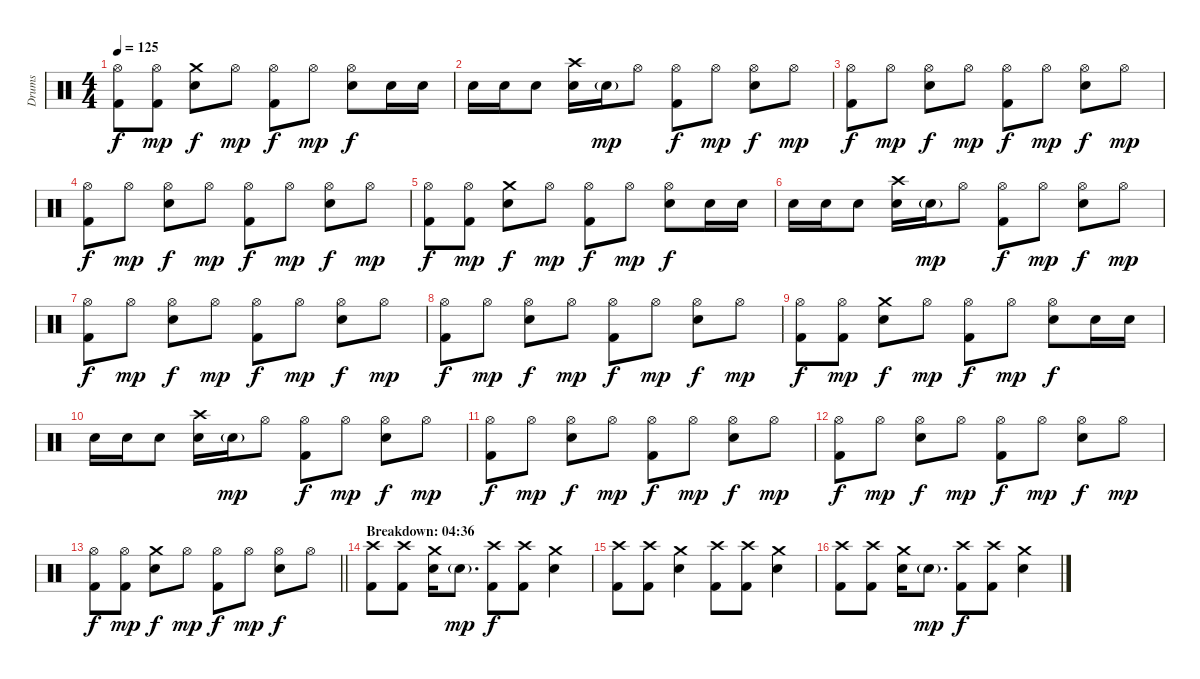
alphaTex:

\track ("Drums" "Drums") {instrument percussion}
\staff {score}
\articulation defaults
\ts (4 4)
\tempo 125
\clef neutral
\ks c
("Hi-Hat (open)" "Kick (hit) 2").8{dy f} ("Hi-Hat (open)" "Kick (hit) 2").8{dy mp} ("Crash medium (hit)" "Electric Snare (hit)").8{dy f} "Hi-Hat (open)".8{dy mp} ("Hi-Hat (open)" "Kick (hit) 2").8{dy f} "Hi-Hat (open)".8{dy mp} ("Hi-Hat (open)" "Electric Snare (hit)").8{dy f} "Electric Snare (hit)".16 "Electric Snare (hit)".16 |
"Electric Snare (hit)".16 "Electric Snare (hit)".16 "Electric Snare (hit)".8 ("Crash high (hit)" "Electric Snare (hit)").16 "Electric Snare (hit)"{g}.16{dy mp} "Hi-Hat (open)".8 ("Hi-Hat (open)" "Kick (hit) 2").8{dy f} "Hi-Hat (open)".8{dy mp} ("Hi-Hat (open)" "Electric Snare (hit)").8{dy f} "Hi-Hat (open)".8{dy mp} |
("Hi-Hat (open)" "Kick (hit) 2").8{dy f} "Hi-Hat (open)".8{dy mp} ("Hi-Hat (open)" "Electric Snare (hit)").8{dy f} "Hi-Hat (open)".8{dy mp} ("Hi-Hat (open)" "Kick (hit) 2").8{dy f} "Hi-Hat (open)".8{dy mp} ("Hi-Hat (open)" "Electric Snare (hit)").8{dy f} "Hi-Hat (open)".8{dy mp} |
("Hi-Hat (open)" "Kick (hit) 2").8{dy f} "Hi-Hat (open)".8{dy mp} ("Hi-Hat (open)" "Electric Snare (hit)").8{dy f} "Hi-Hat (open)".8{dy mp} ("Hi-Hat (open)" "Kick (hit) 2").8{dy f} "Hi-Hat (open)".8{dy mp} ("Hi-Hat (open)" "Electric Snare (hit)").8{dy f} "Hi-Hat (open)".8{dy mp} |
("Hi-Hat (open)" "Kick (hit) 2").8{dy f} ("Hi-Hat (open)" "Kick (hit) 2").8{dy mp} ("Crash medium (hit)" "Electric Snare (hit)").8{dy f} "Hi-Hat (open)".8{dy mp} ("Hi-Hat (open)" "Kick (hit) 2").8{dy f} "Hi-Hat (open)".8{dy mp} ("Hi-Hat (open)" "Electric Snare (hit)").8{dy f} "Electric Snare (hit)".16 "Electric Snare (hit)".16 |
"Electric Snare (hit)".16 "Electric Snare (hit)".16 "Electric Snare (hit)".8 ("Crash high (hit)" "Electric Snare (hit)").16 "Electric Snare (hit)"{g}.16{dy mp} "Hi-Hat (open)".8 ("Hi-Hat (open)" "Kick (hit) 2").8{dy f} "Hi-Hat (open)".8{dy mp} ("Hi-Hat (open)" "Electric Snare (hit)").8{dy f} "Hi-Hat (open)".8{dy mp} |
("Hi-Hat (open)" "Kick (hit) 2").8{dy f} "Hi-Hat (open)".8{dy mp} ("Hi-Hat (open)" "Electric Snare (hit)").8{dy f} "Hi-Hat (open)".8{dy mp} ("Hi-Hat (open)" "Kick (hit) 2").8{dy f} "Hi-Hat (open)".8{dy mp} ("Hi-Hat (open)" "Electric Snare (hit)").8{dy f} "Hi-Hat (open)".8{dy mp} |
("Hi-Hat (open)" "Kick (hit) 2").8{dy f} "Hi-Hat (open)".8{dy mp} ("Hi-Hat (open)" "Electric Snare (hit)").8{dy f} "Hi-Hat (open)".8{dy mp} ("Hi-Hat (open)" "Kick (hit) 2").8{dy f} "Hi-Hat (open)".8{dy mp} ("Hi-Hat (open)" "Electric Snare (hit)").8{dy f} "Hi-Hat (open)".8{dy mp} |
("Hi-Hat (open)" "Kick (hit) 2").8{dy f} ("Hi-Hat (open)" "Kick (hit) 2").8{dy mp} ("Crash medium (hit)" "Electric Snare (hit)").8{dy f} "Hi-Hat (open)".8{dy mp} ("Hi-Hat (open)" "Kick (hit) 2").8{dy f} "Hi-Hat (open)".8{dy mp} ("Hi-Hat (open)" "Electric Snare (hit)").8{dy f} "Electric Snare (hit)".16 "Electric Snare (hit)".16 |
"Electric Snare (hit)".16 "Electric Snare (hit)".16 "Electric Snare (hit)".8 ("Crash high (hit)" "Electric Snare (hit)").16 "Electric Snare (hit)"{g}.16{dy mp} "Hi-Hat (open)".8 ("Hi-Hat (open)" "Kick (hit) 2").8{dy f} "Hi-Hat (open)".8{dy mp} ("Hi-Hat (open)" "Electric Snare (hit)").8{dy f} "Hi-Hat (open)".8{dy mp} |
("Hi-Hat (open)" "Kick (hit) 2").8{dy f} "Hi-Hat (open)".8{dy mp} ("Hi-Hat (open)" "Electric Snare (hit)").8{dy f} "Hi-Hat (open)".8{dy mp} ("Hi-Hat (open)" "Kick (hit) 2").8{dy f} "Hi-Hat (open)".8{dy mp} ("Hi-Hat (open)" "Electric Snare (hit)").8{dy f} "Hi-Hat (open)".8{dy mp} |
("Hi-Hat (open)" "Kick (hit) 2").8{dy f} "Hi-Hat (open)".8{dy mp} ("Hi-Hat (open)" "Electric Snare (hit)").8{dy f} "Hi-Hat (open)".8{dy mp} ("Hi-Hat (open)" "Kick (hit) 2").8{dy f} "Hi-Hat (open)".8{dy mp} ("Hi-Hat (open)" "Electric Snare (hit)").8{dy f} "Hi-Hat (open)".8{dy mp} |
\barLineRight lightlight
("Hi-Hat (open)" "Kick (hit) 2").8{dy f} ("Hi-Hat (open)" "Kick (hit) 2").8{dy mp} ("Crash medium (hit)" "Electric Snare (hit)").8{dy f} "Hi-Hat (open)".8{dy mp} ("Hi-Hat (open)" "Kick (hit) 2").8{dy f} "Hi-Hat (open)".8{dy mp} ("Hi-Hat (open)" "Electric Snare (hit)").8{dy f} "Hi-Hat (open)".8 |
\section ("" "Breakdown: 04:36")
("Crash high (hit)" "Kick (hit) 2").8 ("Crash high (hit)" "Kick (hit) 2").8 ("Crash medium (hit)" "Electric Snare (hit)").16 "Electric Snare (hit)"{g}.8{d dy mp} ("Crash high (hit)" "Kick (hit) 2").8{dy f} ("Crash high (hit)" "Kick (hit) 2").8 ("Crash medium (hit)" "Electric Snare (hit)").4 |
("Crash high (hit)" "Kick (hit) 2").8 ("Crash high (hit)" "Kick (hit) 2").8 ("Crash medium (hit)" "Electric Snare (hit)").4 ("Crash high (hit)" "Kick (hit) 2").8 ("Crash high (hit)" "Kick (hit) 2").8 ("Crash medium (hit)" "Electric Snare (hit)").4 |
("Crash high (hit)" "Kick (hit) 2").8 ("Crash high (hit)" "Kick (hit) 2").8 ("Crash medium (hit)" "Electric Snare (hit)").16 "Electric Snare (hit)"{g}.8{d dy mp} ("Crash high (hit)" "Kick (hit) 2").8{dy f} ("Crash high (hit)" "Kick (hit) 2").8 ("Crash medium (hit)" "Electric Snare (hit)").4
